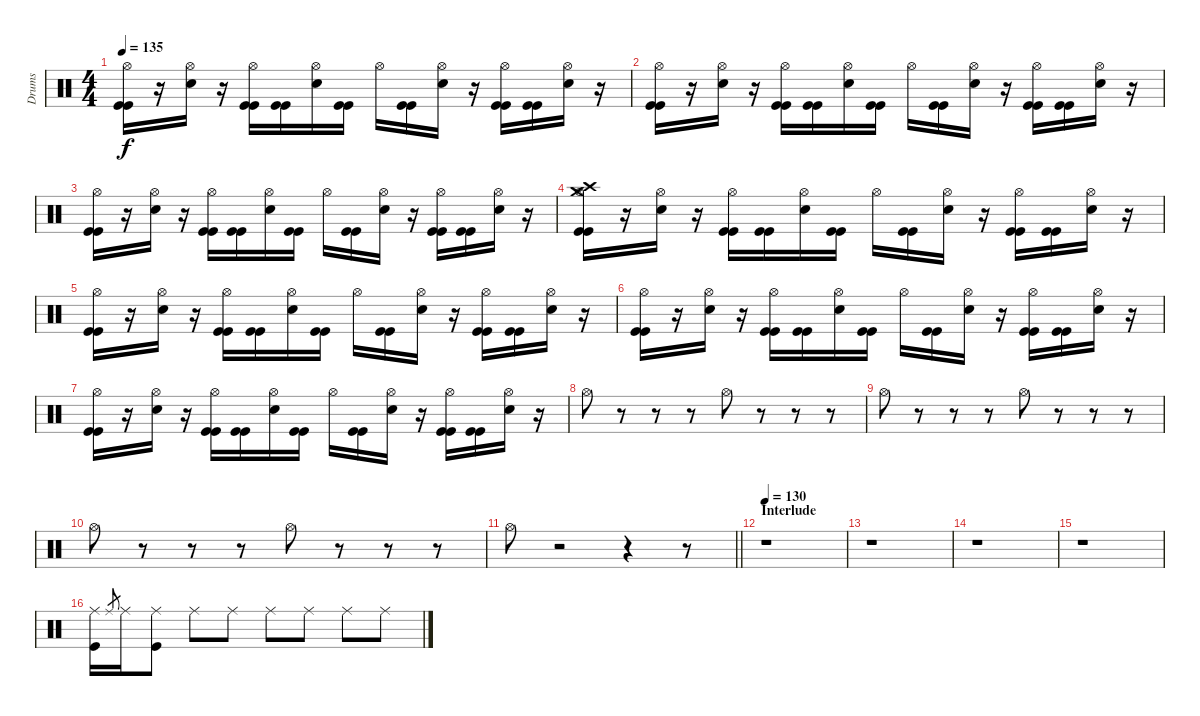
\track ("Drums" "Drums") {instrument percussion}
\staff {score}
\articulation defaults
\ts (4 4)
\tempo 135
\clef neutral
\ks c
("Hi-Hat (open)" "Kick (hit)" "Kick (hit)").16{dy f} r.16 ("Hi-Hat (open)" "Snare (hit) 2").16 r.16 ("Hi-Hat (open)" "Kick (hit)" "Kick (hit)").16 ("Kick (hit)" "Kick (hit)").16 ("Hi-Hat (open)" "Snare (hit) 2").16 ("Kick (hit)" "Kick (hit)").16 "Hi-Hat (open)".16 ("Kick (hit)" "Kick (hit)").16 ("Hi-Hat (open)" "Snare (hit) 2").16 r.16 ("Hi-Hat (open)" "Kick (hit)" "Kick (hit)").16 ("Kick (hit)" "Kick (hit)").16 ("Hi-Hat (open)" "Snare (hit) 2").16 r.16 |
("Hi-Hat (open)" "Kick (hit)" "Kick (hit)").16 r.16 ("Hi-Hat (open)" "Snare (hit) 2").16 r.16 ("Hi-Hat (open)" "Kick (hit)" "Kick (hit)").16 ("Kick (hit)" "Kick (hit)").16 ("Hi-Hat (open)" "Snare (hit) 2").16 ("Kick (hit)" "Kick (hit)").16 "Hi-Hat (open)".16 ("Kick (hit)" "Kick (hit)").16 ("Hi-Hat (open)" "Snare (hit) 2").16 r.16 ("Hi-Hat (open)" "Kick (hit)" "Kick (hit)").16 ("Kick (hit)" "Kick (hit)").16 ("Hi-Hat (open)" "Snare (hit) 2").16 r.16 |
("Hi-Hat (open)" "Kick (hit)" "Kick (hit)").16 r.16 ("Hi-Hat (open)" "Snare (hit) 2").16 r.16 ("Hi-Hat (open)" "Kick (hit)" "Kick (hit)").16 ("Kick (hit)" "Kick (hit)").16 ("Hi-Hat (open)" "Snare (hit) 2").16 ("Kick (hit)" "Kick (hit)").16 "Hi-Hat (open)".16 ("Kick (hit)" "Kick (hit)").16 ("Hi-Hat (open)" "Snare (hit) 2").16 r.16 ("Hi-Hat (open)" "Kick (hit)" "Kick (hit)").16 ("Kick (hit)" "Kick (hit)").16 ("Hi-Hat (open)" "Snare (hit) 2").16 r.16 |
("Crash medium (hit)" "Crash high (hit)" "Hi-Hat (open)" "Kick (hit)" "Kick (hit)").16 r.16 ("Hi-Hat (open)" "Snare (hit) 2").16 r.16 ("Hi-Hat (open)" "Kick (hit)" "Kick (hit)").16 ("Kick (hit)" "Kick (hit)").16 ("Hi-Hat (open)" "Snare (hit) 2").16 ("Kick (hit)" "Kick (hit)").16 "Hi-Hat (open)".16 ("Kick (hit)" "Kick (hit)").16 ("Hi-Hat (open)" "Snare (hit) 2").16 r.16 ("Hi-Hat (open)" "Kick (hit)" "Kick (hit)").16 ("Kick (hit)" "Kick (hit)").16 ("Hi-Hat (open)" "Snare (hit) 2").16 r.16 |
("Hi-Hat (open)" "Kick (hit)" "Kick (hit)").16 r.16 ("Hi-Hat (open)" "Snare (hit) 2").16 r.16 ("Hi-Hat (open)" "Kick (hit)" "Kick (hit)").16 ("Kick (hit)" "Kick (hit)").16 ("Hi-Hat (open)" "Snare (hit) 2").16 ("Kick (hit)" "Kick (hit)").16 "Hi-Hat (open)".16 ("Kick (hit)" "Kick (hit)").16 ("Hi-Hat (open)" "Snare (hit) 2").16 r.16 ("Hi-Hat (open)" "Kick (hit)" "Kick (hit)").16 ("Kick (hit)" "Kick (hit)").16 ("Hi-Hat (open)" "Snare (hit) 2").16 r.16 |
("Hi-Hat (open)" "Kick (hit)" "Kick (hit)").16 r.16 ("Hi-Hat (open)" "Snare (hit) 2").16 r.16 ("Hi-Hat (open)" "Kick (hit)" "Kick (hit)").16 ("Kick (hit)" "Kick (hit)").16 ("Hi-Hat (open)" "Snare (hit) 2").16 ("Kick (hit)" "Kick (hit)").16 "Hi-Hat (open)".16 ("Kick (hit)" "Kick (hit)").16 ("Hi-Hat (open)" "Snare (hit) 2").16 r.16 ("Hi-Hat (open)" "Kick (hit)" "Kick (hit)").16 ("Kick (hit)" "Kick (hit)").16 ("Hi-Hat (open)" "Snare (hit) 2").16 r.16 |
("Hi-Hat (open)" "Kick (hit)" "Kick (hit)").16 r.16 ("Hi-Hat (open)" "Snare (hit) 2").16 r.16 ("Hi-Hat (open)" "Kick (hit)" "Kick (hit)").16 ("Kick (hit)" "Kick (hit)").16 ("Hi-Hat (open)" "Snare (hit) 2").16 ("Kick (hit)" "Kick (hit)").16 "Hi-Hat (open)".16 ("Kick (hit)" "Kick (hit)").16 ("Hi-Hat (open)" "Snare (hit) 2").16 r.16 ("Hi-Hat (open)" "Kick (hit)" "Kick (hit)").16 ("Kick (hit)" "Kick (hit)").16 ("Hi-Hat (open)" "Snare (hit) 2").16 r.16 |
"Hi-Hat (open)".8 r.8 r.8 r.8 "Hi-Hat (open)".8 r.8 r.8 r.8 |
"Hi-Hat (open)".8 r.8 r.8 r.8 "Hi-Hat (open)".8 r.8 r.8 r.8 |
"Hi-Hat (open)".8 r.8 r.8 r.8 "Hi-Hat (open)".8 r.8 r.8 r.8 |
\barLineRight lightlight "Hi-Hat (open)".8
r.2 r.4 r.8 |
\section ("" "Interlude")
\tempo 130
r.1 |
r.1 |
r.1 |
r.1 |
("Ride (middle)" "Kick (hit)").16 "Ride (middle)".8{gr} "Ride (middle)".16 ("Ride (middle)" "Kick (hit)").8 "Ride (middle)".8 "Ride (middle)".8 "Ride (middle)".8 "Ride (middle)".8 "Ride (middle)".8 "Ride (middle)".8
